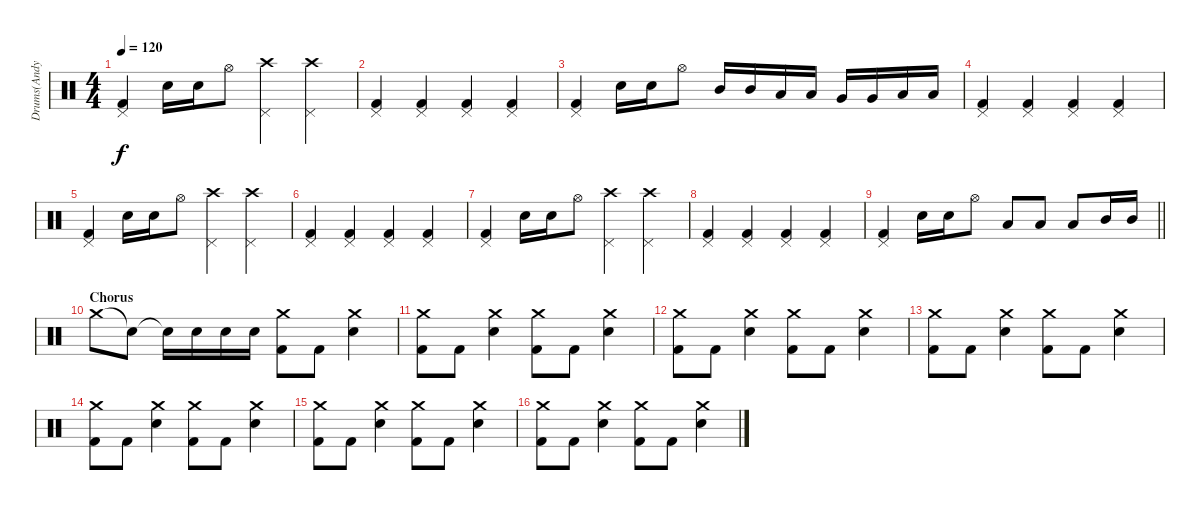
\track ("Drums(Andy Hurley)" "Drums(Andy") {instrument percussion}
\staff {score}
\articulation defaults
\ts (4 4)
\tempo 120
\clef neutral
\ks c
("Pedal Hi-Hat (hit)" "Kick (hit) 2").4{dy f} "Snare (hit) 2".16 "Snare (hit) 2".16 "Hi-Hat (open)".8 ("Crash high (hit)" "Pedal Hi-Hat (hit)").4 ("Crash high (hit)" "Pedal Hi-Hat (hit)").4 |
("Pedal Hi-Hat (hit)" "Kick (hit) 2").4 ("Pedal Hi-Hat (hit)" "Kick (hit) 2").4 ("Pedal Hi-Hat (hit)" "Kick (hit) 2").4 ("Pedal Hi-Hat (hit)" "Kick (hit) 2").4 |
("Pedal Hi-Hat (hit)" "Kick (hit) 2").4 "Snare (hit) 2".16 "Snare (hit) 2".16 "Hi-Hat (open)".8 "Mid Tom (hit)".16 "Mid Tom (hit)".16 "Low Tom (hit)".16 "Low Tom (hit)".16 "Very Low Tom (hit)".16 "Very Low Tom (hit)".16 "Low Floor Tom (hit)".16 "Low Floor Tom (hit)".16 |
("Pedal Hi-Hat (hit)" "Kick (hit) 2").4 ("Pedal Hi-Hat (hit)" "Kick (hit) 2").4 ("Pedal Hi-Hat (hit)" "Kick (hit) 2").4 ("Pedal Hi-Hat (hit)" "Kick (hit) 2").4 |
("Pedal Hi-Hat (hit)" "Kick (hit) 2").4 "Snare (hit) 2".16 "Snare (hit) 2".16 "Hi-Hat (open)".8 ("Crash high (hit)" "Pedal Hi-Hat (hit)").4 ("Crash high (hit)" "Pedal Hi-Hat (hit)").4 |
("Pedal Hi-Hat (hit)" "Kick (hit) 2").4 ("Pedal Hi-Hat (hit)" "Kick (hit) 2").4 ("Pedal Hi-Hat (hit)" "Kick (hit) 2").4 ("Pedal Hi-Hat (hit)" "Kick (hit) 2").4 |
("Pedal Hi-Hat (hit)" "Kick (hit) 2").4 "Snare (hit) 2".16 "Snare (hit) 2".16 "Hi-Hat (open)".8 ("Crash high (hit)" "Pedal Hi-Hat (hit)").4 ("Crash high (hit)" "Pedal Hi-Hat (hit)").4 |
("Pedal Hi-Hat (hit)" "Kick (hit) 2").4 ("Pedal Hi-Hat (hit)" "Kick (hit) 2").4 ("Pedal Hi-Hat (hit)" "Kick (hit) 2").4 ("Pedal Hi-Hat (hit)" "Kick (hit) 2").4 |
\barLineRight lightlight
("Pedal Hi-Hat (hit)" "Kick (hit) 2").4 "Snare (hit) 2".16 "Snare (hit) 2".16 "Hi-Hat (open)".8 "Low Tom (hit)".8 "Low Tom (hit)".8 "Low Tom (hit)".8 "Mid Tom (hit)".16 "Mid Tom (hit)".16 |
\section ("" "Chorus")
"Crash medium (hit)".8 "Snare (hit)"{t}.8 "Snare (hit)"{t}.16 "Snare (hit) 2".16 "Snare (hit) 2".16 "Snare (hit) 2".16 ("Crash medium (hit)" "Kick (hit) 2").8 "Kick (hit) 2".8 ("Crash medium (hit)" "Electric Snare (hit)").4 |
("Crash medium (hit)" "Kick (hit) 2").8 "Kick (hit) 2".8 ("Crash medium (hit)" "Electric Snare (hit)").4 ("Crash medium (hit)" "Kick (hit) 2").8 "Kick (hit) 2".8 ("Crash medium (hit)" "Electric Snare (hit)").4 |
("Crash medium (hit)" "Kick (hit) 2").8 "Kick (hit) 2".8 ("Crash medium (hit)" "Electric Snare (hit)").4 ("Crash medium (hit)" "Kick (hit) 2").8 "Kick (hit) 2".8 ("Crash medium (hit)" "Electric Snare (hit)").4 |
("Crash medium (hit)" "Kick (hit) 2").8 "Kick (hit) 2".8 ("Crash medium (hit)" "Electric Snare (hit)").4 ("Crash medium (hit)" "Kick (hit) 2").8 "Kick (hit) 2".8 ("Crash medium (hit)" "Electric Snare (hit)").4 |
("Crash medium (hit)" "Kick (hit) 2").8 "Kick (hit) 2".8 ("Crash medium (hit)" "Electric Snare (hit)").4 ("Crash medium (hit)" "Kick (hit) 2").8 "Kick (hit) 2".8 ("Crash medium (hit)" "Electric Snare (hit)").4 |
("Crash medium (hit)" "Kick (hit) 2").8 "Kick (hit) 2".8 ("Crash medium (hit)" "Electric Snare (hit)").4 ("Crash medium (hit)" "Kick (hit) 2").8 "Kick (hit) 2".8 ("Crash medium (hit)" "Electric Snare (hit)").4 |
("Crash medium (hit)" "Kick (hit) 2").8 "Kick (hit) 2".8 ("Crash medium (hit)" "Electric Snare (hit)").4 ("Crash medium (hit)" "Kick (hit) 2").8 "Kick (hit) 2".8 ("Crash medium (hit)" "Electric Snare (hit)").4
